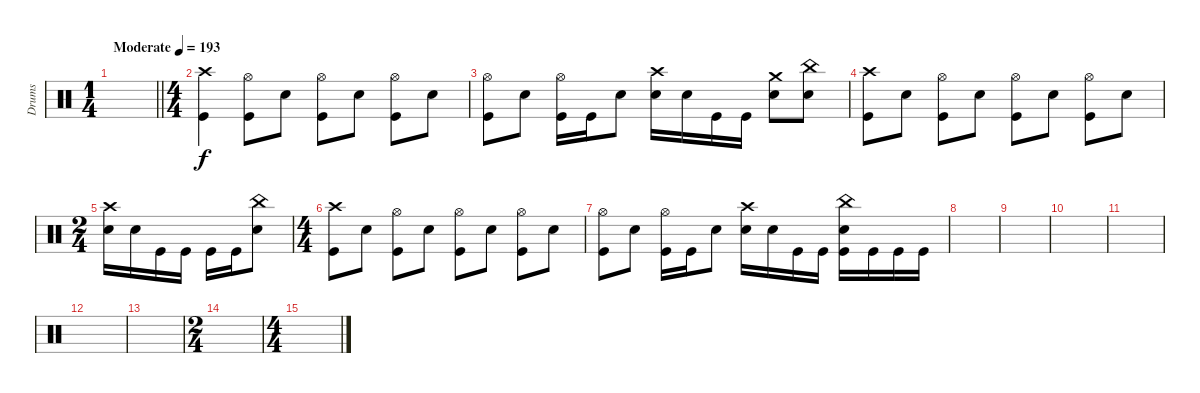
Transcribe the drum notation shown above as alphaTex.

\track ("Drums" "Drums") {instrument percussion}
\staff
\articulation defaults
\ts (1 4)
\tempo (193 "Moderate")
\clef neutral
\barLineRight lightlight
\ks c
|
\ts (4 4)
("Crash high (hit)" "Kick (hit)").4 ("Hi-Hat (open)" "Kick (hit)").8 "Electric Snare (hit)".8 ("Hi-Hat (open)" "Kick (hit)").8 "Electric Snare (hit)".8 ("Hi-Hat (open)" "Kick (hit)").8 "Electric Snare (hit)".8 |
("Hi-Hat (open)" "Kick (hit)").8 "Electric Snare (hit)".8 ("Hi-Hat (open)" "Kick (hit)").16 "Kick (hit)".16 "Electric Snare (hit)".8 ("Crash high (hit)" "Electric Snare (hit)").16 "Electric Snare (hit)".16 "Kick (hit)".16 "Kick (hit)".16 ("Crash medium (hit)" "Electric Snare (hit)").8 ("China (hit)" "Electric Snare (hit)").8 |
("Crash high (hit)" "Kick (hit)").8 "Electric Snare (hit)".8 ("Hi-Hat (open)" "Kick (hit)").8 "Electric Snare (hit)".8 ("Hi-Hat (open)" "Kick (hit)").8 "Electric Snare (hit)".8 ("Hi-Hat (open)" "Kick (hit)").8 "Electric Snare (hit)".8 |
\ts (2 4)
("Crash high (hit)" "Electric Snare (hit)").16 "Electric Snare (hit)".16 "Kick (hit)".16 "Kick (hit)".16 "Kick (hit)".16 "Kick (hit)".16 ("China (hit)" "Electric Snare (hit)").8 |
\ts (4 4)
("Crash high (hit)" "Kick (hit)").8 "Electric Snare (hit)".8 ("Hi-Hat (open)" "Kick (hit)").8 "Electric Snare (hit)".8 ("Hi-Hat (open)" "Kick (hit)").8 "Electric Snare (hit)".8 ("Hi-Hat (open)" "Kick (hit)").8 "Electric Snare (hit)".8 |
("Hi-Hat (open)" "Kick (hit)").8 "Electric Snare (hit)".8 ("Hi-Hat (open)" "Kick (hit)").16 "Kick (hit)".16 "Electric Snare (hit)".8 ("Crash high (hit)" "Electric Snare (hit)").16 "Electric Snare (hit)".16 "Kick (hit)".16 "Kick (hit)".16 ("China (hit)" "Electric Snare (hit)" "Kick (hit)").16 "Kick (hit)".16 "Kick (hit)".16 "Kick (hit)".16 |
|
|
|
|
|
|
\ts (2 4)
|
\ts (4 4)
